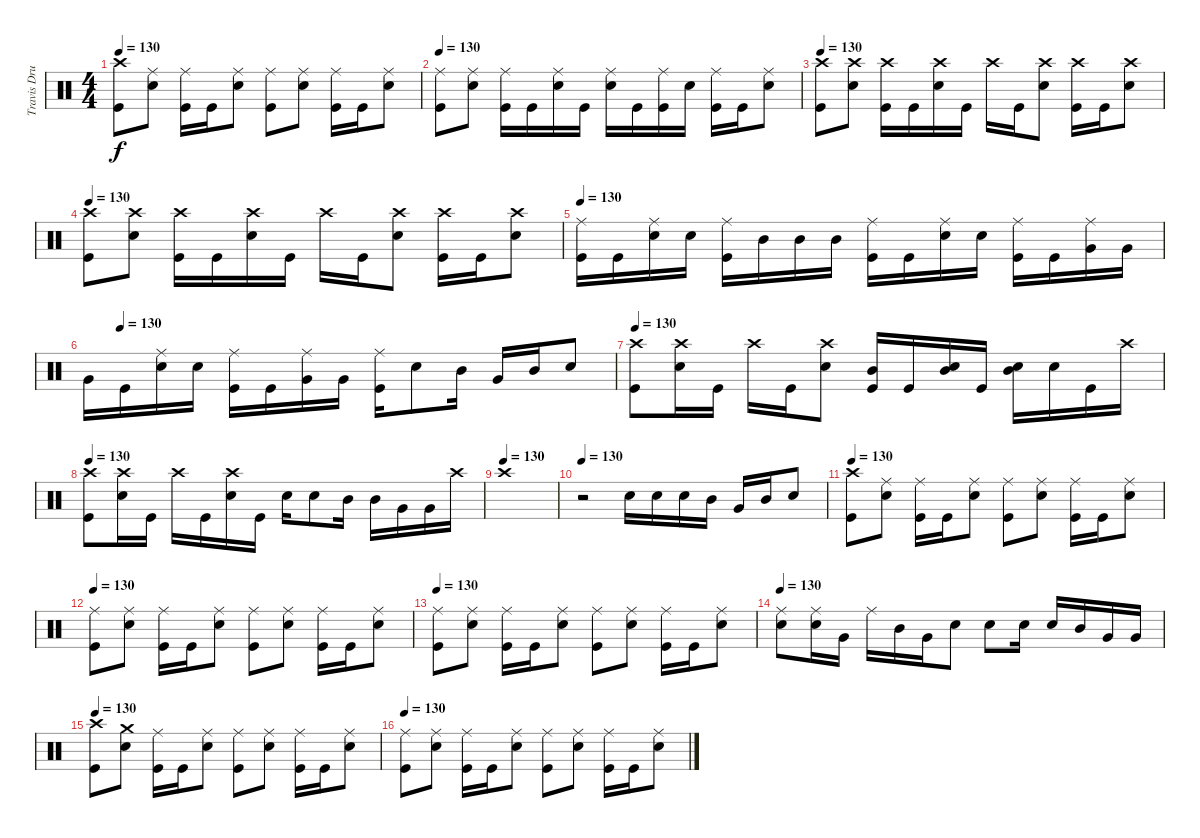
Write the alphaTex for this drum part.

\track ("Travis Drums" "Travis Dru") {instrument percussion}
\staff {score}
\articulation defaults
\ts (4 4)
\tempo 130
\clef neutral
\ks c
("Crash high (hit)" "Kick (hit)").8{dy f} ("Ride (middle)" "Snare (hit) 2").8 ("Ride (middle)" "Kick (hit)").16 "Kick (hit)".16 ("Ride (middle)" "Snare (hit) 2").8 ("Ride (middle)" "Kick (hit)").8 ("Ride (middle)" "Snare (hit) 2").8 ("Ride (middle)" "Kick (hit)").16 "Kick (hit)".16 ("Ride (middle)" "Snare (hit) 2").8 |
\tempo 130
("Ride (middle)" "Kick (hit)").8 ("Ride (middle)" "Snare (hit) 2").8 ("Ride (middle)" "Kick (hit)").16 "Kick (hit)".16 ("Ride (middle)" "Snare (hit) 2").16 "Kick (hit)".16 ("Ride (middle)" "Snare (hit) 2").16 "Kick (hit)".16 ("Ride (middle)" "Kick (hit)").16 "Snare (hit) 2".16 ("Ride (middle)" "Kick (hit)").16 "Kick (hit)".16 ("Ride (middle)" "Snare (hit) 2").8 |
\tempo 130
("Crash high (hit)" "Kick (hit)").8 ("Crash high (hit)" "Snare (hit) 2").8 ("Crash high (hit)" "Kick (hit)").16 "Kick (hit)".16 ("Crash high (hit)" "Snare (hit) 2").16 "Kick (hit)".16 "Crash high (hit)".16 "Kick (hit)".16 ("Crash high (hit)" "Snare (hit) 2").8 ("Crash high (hit)" "Kick (hit)").16 "Kick (hit)".16 ("Crash high (hit)" "Snare (hit) 2").8 |
\tempo 130
("Crash high (hit)" "Kick (hit)").8 ("Crash high (hit)" "Snare (hit) 2").8 ("Crash high (hit)" "Kick (hit)").16 "Kick (hit)".16 ("Crash high (hit)" "Snare (hit) 2").16 "Kick (hit)".16 "Crash high (hit)".16 "Kick (hit)".16 ("Crash high (hit)" "Snare (hit) 2").8 ("Crash high (hit)" "Kick (hit)").16 "Kick (hit)".16 ("Crash high (hit)" "Snare (hit) 2").8 |
\tempo 130
("Ride (middle)" "Kick (hit)").16 "Kick (hit)".16 ("Ride (middle)" "Snare (hit) 2").16 "Snare (hit) 2".16 ("Ride (middle)" "Kick (hit)").16 "Mid Tom (hit)".16 "Mid Tom (hit)".16 "Mid Tom (hit)".16 ("Ride (middle)" "Kick (hit)").16 "Kick (hit)".16 ("Ride (middle)" "Snare (hit) 2").16 "Snare (hit) 2".16 ("Ride (middle)" "Kick (hit)").16 "Kick (hit)".16 ("Ride (middle)" "Very Low Tom (hit)").16 "Very Low Tom (hit)".16 |
\tempo (130 0.0625)
"Very Low Tom (hit)".16 "Kick (hit)".16 ("Ride (middle)" "Snare (hit) 2").16 "Snare (hit) 2".16 ("Ride (middle)" "Kick (hit)").16 "Kick (hit)".16 ("Ride (middle)" "Very Low Tom (hit)").16 "Very Low Tom (hit)".16 ("Ride (middle)" "Kick (hit)").16 "Snare (hit) 2".8 "Mid Tom (hit)".16 "Very Low Tom (hit)".16 "Mid Tom (hit)".16 "Snare (hit) 2".8 |
\tempo 130
("Crash high (hit)" "Kick (hit)").8 ("Crash high (hit)" "Snare (hit) 2").16 "Kick (hit)".16 "Crash high (hit)".16 "Kick (hit)".16 ("Crash high (hit)" "Snare (hit) 2").8 ("Mid Tom (hit)" "Kick (hit)").16 "Kick (hit)".16 ("Mid Tom (hit)" "Snare (hit) 2").16 "Kick (hit)".16 ("Mid Tom (hit)" "Snare (hit) 2").16 "Snare (hit) 2".16 "Kick (hit)".16 "Crash high (hit)".16 |
\tempo 130
("Crash high (hit)" "Kick (hit)").8 ("Crash high (hit)" "Snare (hit) 2").16 "Kick (hit)".16 "Crash high (hit)".16 "Kick (hit)".16 ("Crash high (hit)" "Snare (hit) 2").16 "Kick (hit)".16 "Snare (hit) 2".16 "Snare (hit) 2".8 "Mid Tom (hit)".16 "Mid Tom (hit)".16 "Very Low Tom (hit)".16 "Very Low Tom (hit)".16 "Crash high (hit)".16 |
\tempo (130)
"Crash high (hit)".1 |
\tempo 130
r.2 "Snare (hit) 2".16 "Snare (hit) 2".16 "Snare (hit) 2".16 "Mid Tom (hit)".16 "Very Low Tom (hit)".16 "Mid Tom (hit)".16 "Snare (hit) 2".8 |
\tempo 130
("Crash high (hit)" "Kick (hit)").8 ("Ride (middle)" "Snare (hit) 2").8 ("Ride (middle)" "Kick (hit)").16 "Kick (hit)".16 ("Ride (middle)" "Snare (hit) 2").8 ("Ride (middle)" "Kick (hit)").8 ("Ride (middle)" "Snare (hit) 2").8 ("Ride (middle)" "Kick (hit)").16 "Kick (hit)".16 ("Ride (middle)" "Snare (hit) 2").8 |
\tempo 130
("Ride (middle)" "Kick (hit)").8 ("Ride (middle)" "Snare (hit) 2").8 ("Ride (middle)" "Kick (hit)").16 "Kick (hit)".16 ("Ride (middle)" "Snare (hit) 2").8 ("Ride (middle)" "Kick (hit)").8 ("Ride (middle)" "Snare (hit) 2").8 ("Ride (middle)" "Kick (hit)").16 "Kick (hit)".16 ("Ride (middle)" "Snare (hit) 2").8 |
\tempo 130
("Ride (middle)" "Kick (hit)").8 ("Ride (middle)" "Snare (hit) 2").8 ("Ride (middle)" "Kick (hit)").16 "Kick (hit)".16 ("Ride (middle)" "Snare (hit) 2").8 ("Ride (middle)" "Kick (hit)").8 ("Ride (middle)" "Snare (hit) 2").8 ("Ride (middle)" "Kick (hit)").16 "Kick (hit)".16 ("Ride (middle)" "Snare (hit) 2").8 |
\tempo 130
("Ride (middle)" "Snare (hit) 2").8 ("Ride (middle)" "Snare (hit) 2").16 "Very Low Tom (hit)".16 "Ride (middle)".16 "Mid Tom (hit)".16 "Very Low Tom (hit)".16 "Snare (hit) 2".8 "Snare (hit) 2".8 "Snare (hit) 2".16 "Snare (hit) 2".16 "Mid Tom (hit)".16 "Very Low Tom (hit)".16 "Very Low Tom (hit)".16 |
\tempo 130
("Crash high (hit)" "Kick (hit)").8 ("Crash medium (hit)" "Snare (hit) 2").8 ("Ride (middle)" "Kick (hit)").16 "Kick (hit)".16 ("Ride (middle)" "Snare (hit) 2").8 ("Ride (middle)" "Kick (hit)").8 ("Ride (middle)" "Snare (hit) 2").8 ("Ride (middle)" "Kick (hit)").16 "Kick (hit)".16 ("Ride (middle)" "Snare (hit) 2").8 |
\tempo 130
("Ride (middle)" "Kick (hit)").8 ("Ride (middle)" "Snare (hit) 2").8 ("Ride (middle)" "Kick (hit)").16 "Kick (hit)".16 ("Ride (middle)" "Snare (hit) 2").8 ("Ride (middle)" "Kick (hit)").8 ("Ride (middle)" "Snare (hit) 2").8 ("Ride (middle)" "Kick (hit)").16 "Kick (hit)".16 ("Ride (middle)" "Snare (hit) 2").8
